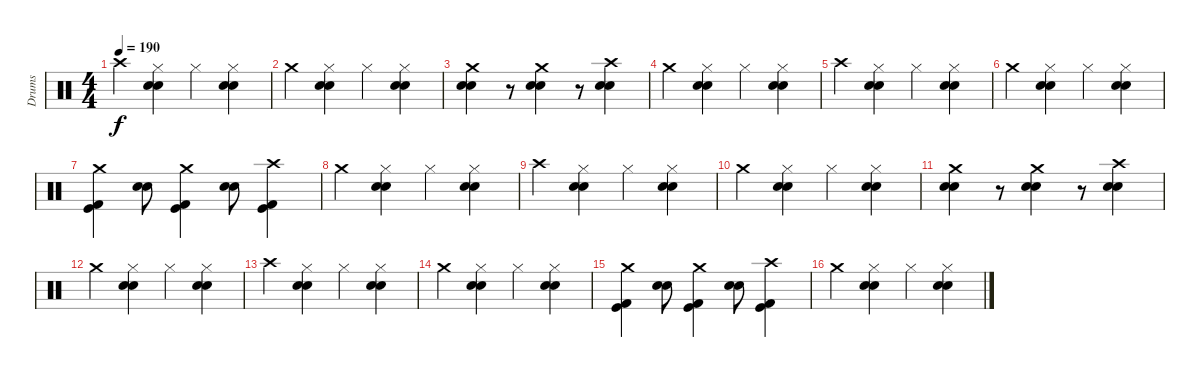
\track ("Drums" "Drums") {instrument percussion}
\staff {score}
\articulation defaults
\ts (4 4)
\tempo 190
\clef neutral
\ks c "Crash high (hit)".4{dy f}
("Hi-Hat (closed)" "Electric Snare (hit)" "Snare (hit) 2").4 "Hi-Hat (closed)".4 ("Hi-Hat (closed)" "Electric Snare (hit)" "Snare (hit) 2").4 |
"Crash medium (hit)".4 ("Hi-Hat (closed)" "Electric Snare (hit)" "Snare (hit) 2").4 "Hi-Hat (closed)".4 ("Hi-Hat (closed)" "Electric Snare (hit)" "Snare (hit) 2").4 |
("Crash medium (hit)" "Electric Snare (hit)" "Snare (hit) 2").4 r.8 ("Crash medium (hit)" "Electric Snare (hit)" "Snare (hit) 2").4 r.8 ("Crash high (hit)" "Electric Snare (hit)" "Snare (hit) 2").4 |
"Crash medium (hit)".4 ("Hi-Hat (closed)" "Electric Snare (hit)" "Snare (hit) 2").4 "Hi-Hat (closed)".4 ("Hi-Hat (closed)" "Electric Snare (hit)" "Snare (hit) 2").4 |
"Crash high (hit)".4 ("Hi-Hat (closed)" "Electric Snare (hit)" "Snare (hit) 2").4 "Hi-Hat (closed)".4 ("Hi-Hat (closed)" "Electric Snare (hit)" "Snare (hit) 2").4 |
"Crash medium (hit)".4 ("Hi-Hat (closed)" "Electric Snare (hit)" "Snare (hit) 2").4 "Hi-Hat (closed)".4 ("Hi-Hat (closed)" "Electric Snare (hit)" "Snare (hit) 2").4 |
("Crash medium (hit)" "Kick (hit) 2" "Kick (hit)").4 ("Electric Snare (hit)" "Snare (hit) 2").8 ("Crash medium (hit)" "Kick (hit) 2" "Kick (hit)").4 ("Electric Snare (hit)" "Snare (hit) 2").8 ("Crash high (hit)" "Kick (hit) 2" "Kick (hit)").4 |
"Crash medium (hit)".4 ("Hi-Hat (closed)" "Electric Snare (hit)" "Snare (hit) 2").4 "Hi-Hat (closed)".4 ("Hi-Hat (closed)" "Electric Snare (hit)" "Snare (hit) 2").4 |
"Crash high (hit)".4 ("Hi-Hat (closed)" "Electric Snare (hit)" "Snare (hit) 2").4 "Hi-Hat (closed)".4 ("Hi-Hat (closed)" "Electric Snare (hit)" "Snare (hit) 2").4 |
"Crash medium (hit)".4 ("Hi-Hat (closed)" "Electric Snare (hit)" "Snare (hit) 2").4 "Hi-Hat (closed)".4 ("Hi-Hat (closed)" "Electric Snare (hit)" "Snare (hit) 2").4 |
("Crash medium (hit)" "Electric Snare (hit)" "Snare (hit) 2").4 r.8 ("Crash medium (hit)" "Electric Snare (hit)" "Snare (hit) 2").4 r.8 ("Crash high (hit)" "Electric Snare (hit)" "Snare (hit) 2").4 |
"Crash medium (hit)".4 ("Hi-Hat (closed)" "Electric Snare (hit)" "Snare (hit) 2").4 "Hi-Hat (closed)".4 ("Hi-Hat (closed)" "Electric Snare (hit)" "Snare (hit) 2").4 |
"Crash high (hit)".4 ("Hi-Hat (closed)" "Electric Snare (hit)" "Snare (hit) 2").4 "Hi-Hat (closed)".4 ("Hi-Hat (closed)" "Electric Snare (hit)" "Snare (hit) 2").4 |
"Crash medium (hit)".4 ("Hi-Hat (closed)" "Electric Snare (hit)" "Snare (hit) 2").4 "Hi-Hat (closed)".4 ("Hi-Hat (closed)" "Electric Snare (hit)" "Snare (hit) 2").4 |
("Crash medium (hit)" "Kick (hit) 2" "Kick (hit)").4 ("Electric Snare (hit)" "Snare (hit) 2").8 ("Crash medium (hit)" "Kick (hit) 2" "Kick (hit)").4 ("Electric Snare (hit)" "Snare (hit) 2").8 ("Crash high (hit)" "Kick (hit) 2" "Kick (hit)").4 |
"Crash medium (hit)".4 ("Hi-Hat (closed)" "Electric Snare (hit)" "Snare (hit) 2").4 "Hi-Hat (closed)".4 ("Hi-Hat (closed)" "Electric Snare (hit)" "Snare (hit) 2").4
